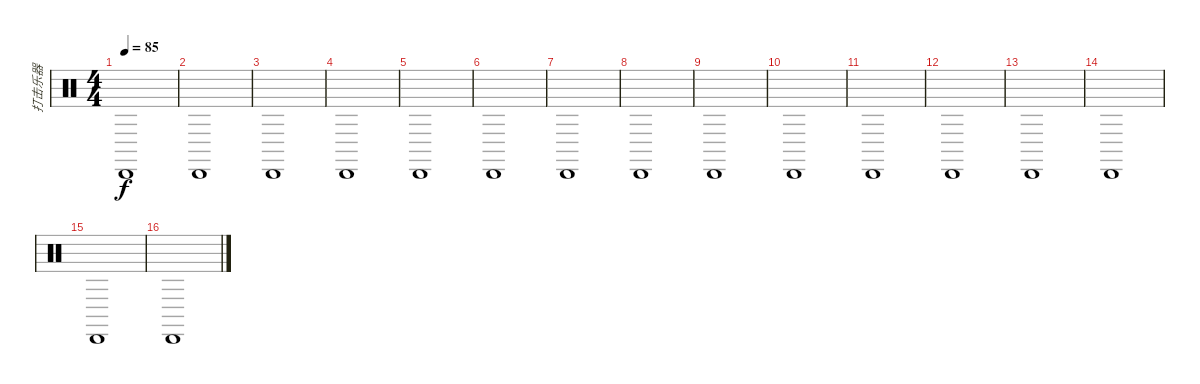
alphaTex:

\track ("打击乐器" "打击乐器") {instrument percussion}
\staff {score}
\articulation defaults
\ts (4 4)
\tempo 85
\clef neutral
\ks c "Cabasa (hit)".1{dy f}
|
"Cabasa (hit)".1 |
"Cabasa (hit)".1 |
"Cabasa (hit)".1 |
"Cabasa (hit)".1 |
"Cabasa (hit)".1 |
"Cabasa (hit)".1 |
"Cabasa (hit)".1 |
"Cabasa (hit)".1 |
"Cabasa (hit)".1 |
"Cabasa (hit)".1 |
"Cabasa (hit)".1 |
"Cabasa (hit)".1 |
"Cabasa (hit)".1 |
"Cabasa (hit)".1 |
"Cabasa (hit)".1
